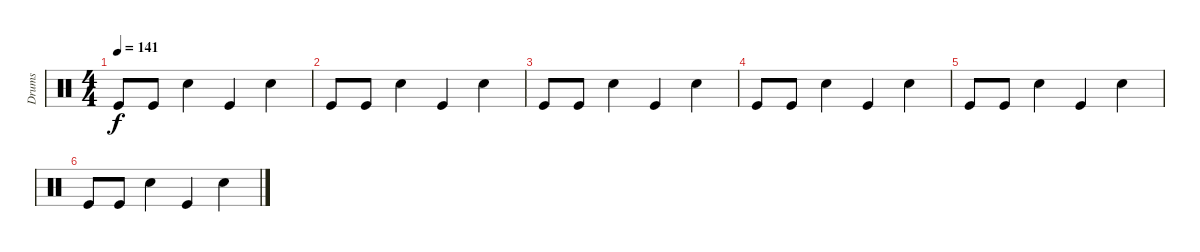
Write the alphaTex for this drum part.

\track ("Drums" "Drums") {instrument percussion}
\staff {score}
\articulation defaults
\ts (4 4)
\tempo 141
\clef neutral
\ks c "Kick (hit)".8{dy f volume 6} "Kick (hit)".8 "Snare (hit) 2".4 "Kick (hit)".4 "Snare (hit) 2".4
|
"Kick (hit)".8{volume 5} "Kick (hit)".8 "Snare (hit) 2".4 "Kick (hit)".4 "Snare (hit) 2".4 |
"Kick (hit)".8 "Kick (hit)".8 "Snare (hit) 2".4 "Kick (hit)".4 "Snare (hit) 2".4 |
"Kick (hit)".8{volume 3} "Kick (hit)".8 "Snare (hit) 2".4 "Kick (hit)".4 "Snare (hit) 2".4 |
"Kick (hit)".8{volume 2} "Kick (hit)".8 "Snare (hit) 2".4 "Kick (hit)".4 "Snare (hit) 2".4 |
"Kick (hit)".8 "Kick (hit)".8 "Snare (hit) 2".4 "Kick (hit)".4 "Snare (hit) 2".4
